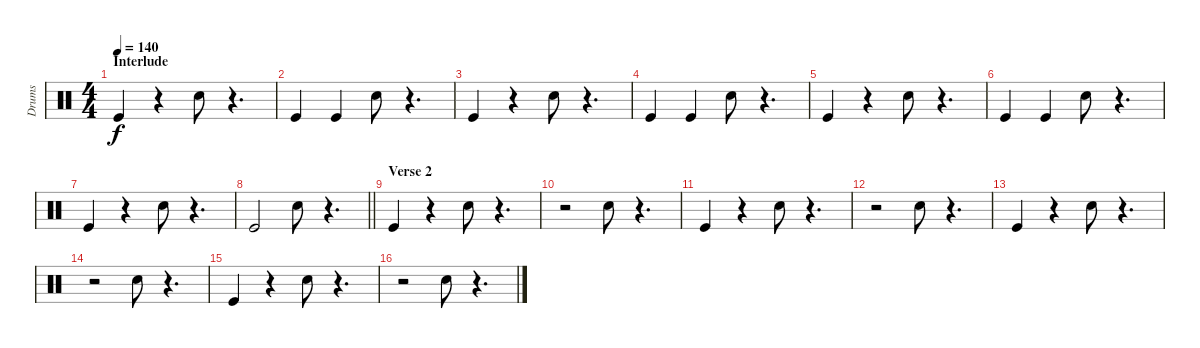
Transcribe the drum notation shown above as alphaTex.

\track ("Drums" "Drums") {instrument percussion}
\staff {score}
\articulation defaults
\ts (4 4)
\section ("" "Interlude")
\tempo 140
\clef neutral
\ks c "Kick (hit)".4{dy f}
r.4 "Snare (hit) 2".8 r.4{d} |
"Kick (hit)".4 "Kick (hit)".4 "Snare (hit) 2".8 r.4{d} |
"Kick (hit)".4 r.4 "Snare (hit) 2".8 r.4{d} |
"Kick (hit)".4 "Kick (hit)".4 "Snare (hit) 2".8 r.4{d} |
"Kick (hit)".4 r.4 "Snare (hit) 2".8 r.4{d} |
"Kick (hit)".4 "Kick (hit)".4 "Snare (hit) 2".8 r.4{d} |
"Kick (hit)".4 r.4 "Snare (hit) 2".8 r.4{d} |
\barLineRight lightlight "Kick (hit)".2 "Snare (hit) 2".8
r.4{d} |
\section ("" "Verse 2")
"Kick (hit)".4 r.4 "Snare (hit) 2".8 r.4{d} |
r.2 "Snare (hit) 2".8 r.4{d} |
"Kick (hit)".4 r.4 "Snare (hit) 2".8 r.4{d} |
r.2 "Snare (hit) 2".8 r.4{d} |
"Kick (hit)".4 r.4 "Snare (hit) 2".8 r.4{d} |
r.2 "Snare (hit) 2".8 r.4{d} |
"Kick (hit)".4 r.4 "Snare (hit) 2".8 r.4{d} |
r.2 "Snare (hit) 2".8 r.4{d}
